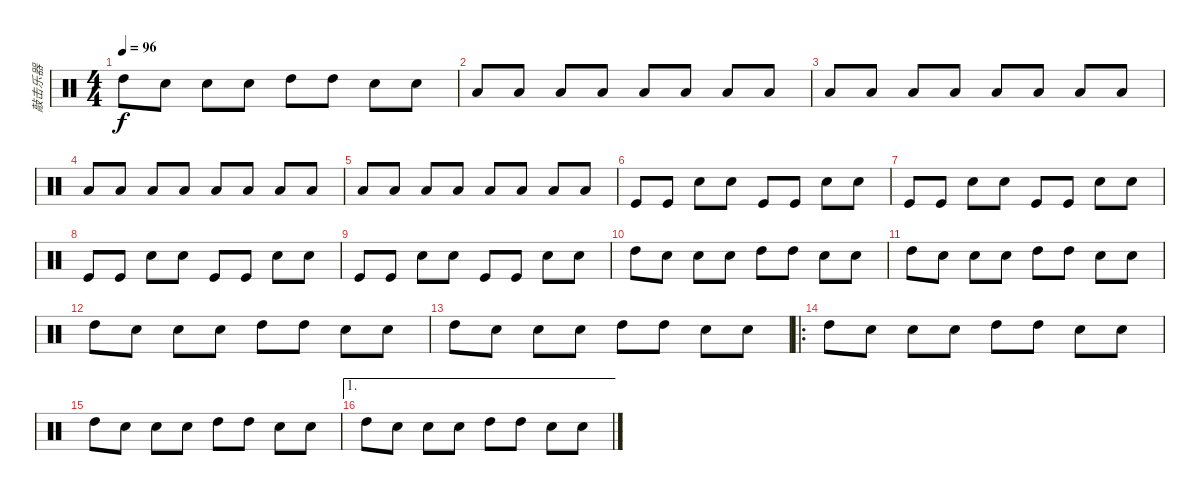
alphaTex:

\track ("敲击乐器" "敲击乐器") {instrument percussion}
\staff {score}
\articulation defaults
\ts (4 4)
\tempo 96
\clef neutral
\ks c "High Tom (hit)".8{dy f} "Snare (hit) 2".8 "Snare (hit) 2".8 "Snare (hit) 2".8 "High Tom (hit)".8 "High Tom (hit)".8 "Snare (hit) 2".8 "Snare (hit) 2".8
|
"Low Floor Tom (hit)".8 "Low Floor Tom (hit)".8 "Low Floor Tom (hit)".8 "Low Floor Tom (hit)".8 "Low Floor Tom (hit)".8 "Low Floor Tom (hit)".8 "Low Floor Tom (hit)".8 "Low Floor Tom (hit)".8 |
"Low Floor Tom (hit)".8 "Low Floor Tom (hit)".8 "Low Floor Tom (hit)".8 "Low Floor Tom (hit)".8 "Low Floor Tom (hit)".8 "Low Floor Tom (hit)".8 "Low Floor Tom (hit)".8 "Low Floor Tom (hit)".8 |
"Low Floor Tom (hit)".8 "Low Floor Tom (hit)".8 "Low Floor Tom (hit)".8 "Low Floor Tom (hit)".8 "Low Floor Tom (hit)".8 "Low Floor Tom (hit)".8 "Low Floor Tom (hit)".8 "Low Floor Tom (hit)".8 |
"Low Floor Tom (hit)".8 "Low Floor Tom (hit)".8 "Low Floor Tom (hit)".8 "Low Floor Tom (hit)".8 "Low Floor Tom (hit)".8 "Low Floor Tom (hit)".8 "Low Floor Tom (hit)".8 "Low Floor Tom (hit)".8 |
"Kick (hit)".8 "Kick (hit)".8 "Electric Snare (hit)".8 "Electric Snare (hit)".8 "Kick (hit)".8 "Kick (hit)".8 "Electric Snare (hit)".8 "Electric Snare (hit)".8 |
"Kick (hit)".8 "Kick (hit)".8 "Electric Snare (hit)".8 "Electric Snare (hit)".8 "Kick (hit)".8 "Kick (hit)".8 "Electric Snare (hit)".8 "Electric Snare (hit)".8 |
"Kick (hit)".8 "Kick (hit)".8 "Electric Snare (hit)".8 "Electric Snare (hit)".8 "Kick (hit)".8 "Kick (hit)".8 "Electric Snare (hit)".8 "Electric Snare (hit)".8 |
"Kick (hit)".8 "Kick (hit)".8 "Electric Snare (hit)".8 "Electric Snare (hit)".8 "Kick (hit)".8 "Kick (hit)".8 "Electric Snare (hit)".8 "Electric Snare (hit)".8 |
"High Tom (hit)".8 "Snare (hit) 2".8 "Snare (hit) 2".8 "Snare (hit) 2".8 "High Tom (hit)".8 "High Tom (hit)".8 "Snare (hit) 2".8 "Snare (hit) 2".8 |
"High Tom (hit)".8 "Snare (hit) 2".8 "Snare (hit) 2".8 "Snare (hit) 2".8 "High Tom (hit)".8 "High Tom (hit)".8 "Snare (hit) 2".8 "Snare (hit) 2".8 |
"High Tom (hit)".8 "Snare (hit) 2".8 "Snare (hit) 2".8 "Snare (hit) 2".8 "High Tom (hit)".8 "High Tom (hit)".8 "Snare (hit) 2".8 "Snare (hit) 2".8 |
"High Tom (hit)".8 "Snare (hit) 2".8 "Snare (hit) 2".8 "Snare (hit) 2".8 "High Tom (hit)".8 "High Tom (hit)".8 "Snare (hit) 2".8 "Snare (hit) 2".8 |
\ro "High Tom (hit)".8 "Snare (hit) 2".8 "Snare (hit) 2".8 "Snare (hit) 2".8 "High Tom (hit)".8 "High Tom (hit)".8 "Snare (hit) 2".8 "Snare (hit) 2".8
|
"High Tom (hit)".8 "Snare (hit) 2".8 "Snare (hit) 2".8 "Snare (hit) 2".8 "High Tom (hit)".8 "High Tom (hit)".8 "Snare (hit) 2".8 "Snare (hit) 2".8 |
\ae 1 "High Tom (hit)".8 "Snare (hit) 2".8 "Snare (hit) 2".8 "Snare (hit) 2".8 "High Tom (hit)".8 "High Tom (hit)".8 "Snare (hit) 2".8 "Snare (hit) 2".8
